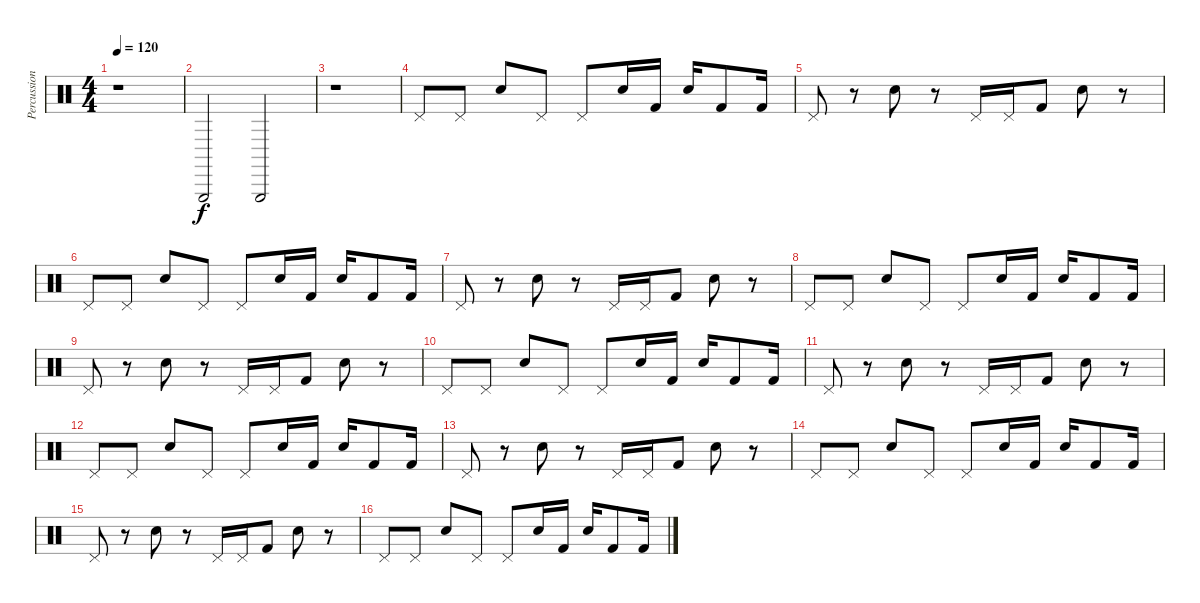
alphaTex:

\track ("Percussion" "Percussion") {instrument percussion}
\staff {score}
\articulation defaults
\ts (4 4)
\tempo 120
\clef neutral
\ks c
r.1{dy f} |
"Triangle (hit)".2 "Triangle (hit)".2 |
r.1 |
"Pedal Hi-Hat (hit)".8 "Pedal Hi-Hat (hit)".8 "Electric Snare (hit)".8 "Pedal Hi-Hat (hit)".8 "Pedal Hi-Hat (hit)".8 "Electric Snare (hit)".16 "Kick (hit) 2".16 "Electric Snare (hit)".16 "Kick (hit) 2".8 "Kick (hit) 2".16 |
"Pedal Hi-Hat (hit)".8 r.8 "Electric Snare (hit)".8 r.8 "Pedal Hi-Hat (hit)".16 "Pedal Hi-Hat (hit)".16 "Kick (hit) 2".8 "Electric Snare (hit)".8 r.8 |
"Pedal Hi-Hat (hit)".8 "Pedal Hi-Hat (hit)".8 "Electric Snare (hit)".8 "Pedal Hi-Hat (hit)".8 "Pedal Hi-Hat (hit)".8 "Electric Snare (hit)".16 "Kick (hit) 2".16 "Electric Snare (hit)".16 "Kick (hit) 2".8 "Kick (hit) 2".16 |
"Pedal Hi-Hat (hit)".8 r.8 "Electric Snare (hit)".8 r.8 "Pedal Hi-Hat (hit)".16 "Pedal Hi-Hat (hit)".16 "Kick (hit) 2".8 "Electric Snare (hit)".8 r.8 |
"Pedal Hi-Hat (hit)".8 "Pedal Hi-Hat (hit)".8 "Electric Snare (hit)".8 "Pedal Hi-Hat (hit)".8 "Pedal Hi-Hat (hit)".8 "Electric Snare (hit)".16 "Kick (hit) 2".16 "Electric Snare (hit)".16 "Kick (hit) 2".8 "Kick (hit) 2".16 |
"Pedal Hi-Hat (hit)".8 r.8 "Electric Snare (hit)".8 r.8 "Pedal Hi-Hat (hit)".16 "Pedal Hi-Hat (hit)".16 "Kick (hit) 2".8 "Electric Snare (hit)".8 r.8 |
"Pedal Hi-Hat (hit)".8 "Pedal Hi-Hat (hit)".8 "Electric Snare (hit)".8 "Pedal Hi-Hat (hit)".8 "Pedal Hi-Hat (hit)".8 "Electric Snare (hit)".16 "Kick (hit) 2".16 "Electric Snare (hit)".16 "Kick (hit) 2".8 "Kick (hit) 2".16 |
"Pedal Hi-Hat (hit)".8 r.8 "Electric Snare (hit)".8 r.8 "Pedal Hi-Hat (hit)".16 "Pedal Hi-Hat (hit)".16 "Kick (hit) 2".8 "Electric Snare (hit)".8 r.8 |
"Pedal Hi-Hat (hit)".8 "Pedal Hi-Hat (hit)".8 "Electric Snare (hit)".8 "Pedal Hi-Hat (hit)".8 "Pedal Hi-Hat (hit)".8 "Electric Snare (hit)".16 "Kick (hit) 2".16 "Electric Snare (hit)".16 "Kick (hit) 2".8 "Kick (hit) 2".16 |
"Pedal Hi-Hat (hit)".8 r.8 "Electric Snare (hit)".8 r.8 "Pedal Hi-Hat (hit)".16 "Pedal Hi-Hat (hit)".16 "Kick (hit) 2".8 "Electric Snare (hit)".8 r.8 |
"Pedal Hi-Hat (hit)".8 "Pedal Hi-Hat (hit)".8 "Electric Snare (hit)".8 "Pedal Hi-Hat (hit)".8 "Pedal Hi-Hat (hit)".8 "Electric Snare (hit)".16 "Kick (hit) 2".16 "Electric Snare (hit)".16 "Kick (hit) 2".8 "Kick (hit) 2".16 |
"Pedal Hi-Hat (hit)".8 r.8 "Electric Snare (hit)".8 r.8 "Pedal Hi-Hat (hit)".16 "Pedal Hi-Hat (hit)".16 "Kick (hit) 2".8 "Electric Snare (hit)".8 r.8 |
"Pedal Hi-Hat (hit)".8 "Pedal Hi-Hat (hit)".8 "Electric Snare (hit)".8 "Pedal Hi-Hat (hit)".8 "Pedal Hi-Hat (hit)".8 "Electric Snare (hit)".16 "Kick (hit) 2".16 "Electric Snare (hit)".16 "Kick (hit) 2".8 "Kick (hit) 2".16
